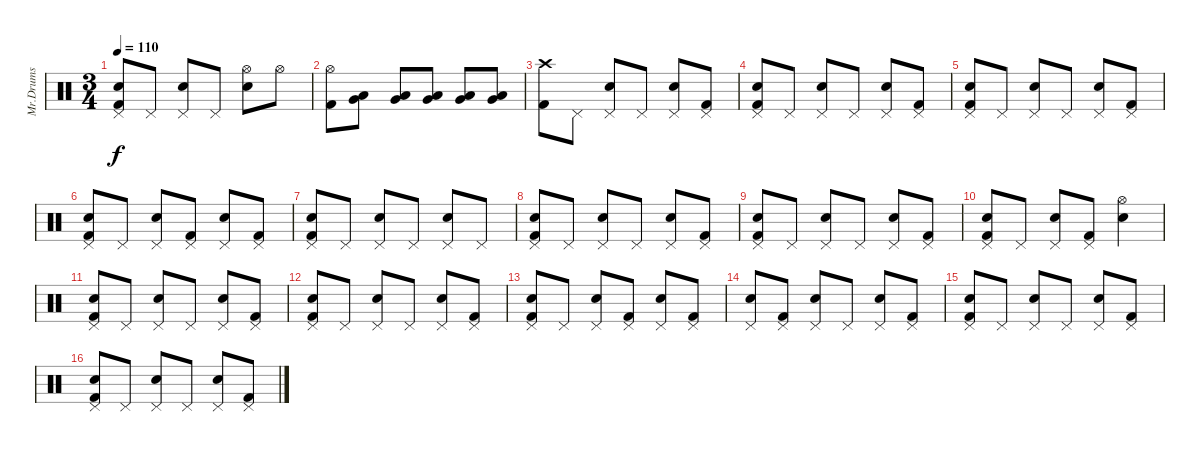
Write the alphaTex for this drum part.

\track ("Mr.Drums" "Mr.Drums") {instrument percussion}
\staff {score}
\articulation defaults
\ts (3 4)
\tempo 110
\clef neutral
\ks c
("Pedal Hi-Hat (hit)" "Electric Snare (hit)" "Kick (hit) 2").8{dy f} "Pedal Hi-Hat (hit)".8 ("Pedal Hi-Hat (hit)" "Electric Snare (hit)").8 "Pedal Hi-Hat (hit)".8 ("Hi-Hat (open)" "Electric Snare (hit)").8 "Hi-Hat (open)".8 |
("Hi-Hat (open)" "Kick (hit) 2").8 ("Low Tom (hit)" "Very Low Tom (hit)").8 ("Low Tom (hit)" "Very Low Tom (hit)").8 ("Low Tom (hit)" "Very Low Tom (hit)").8 ("Low Tom (hit)" "Very Low Tom (hit)").8 ("Very Low Tom (hit)" "Low Floor Tom (hit)").8 |
("Crash high (hit)" "Kick (hit) 2").8 "Pedal Hi-Hat (hit)".8 ("Pedal Hi-Hat (hit)" "Electric Snare (hit)").8 "Pedal Hi-Hat (hit)".8 ("Pedal Hi-Hat (hit)" "Electric Snare (hit)").8 ("Pedal Hi-Hat (hit)" "Kick (hit) 2").8 |
("Pedal Hi-Hat (hit)" "Electric Snare (hit)" "Kick (hit) 2").8 "Pedal Hi-Hat (hit)".8 ("Pedal Hi-Hat (hit)" "Electric Snare (hit)").8 "Pedal Hi-Hat (hit)".8 ("Pedal Hi-Hat (hit)" "Electric Snare (hit)").8 ("Pedal Hi-Hat (hit)" "Kick (hit) 2").8 |
("Pedal Hi-Hat (hit)" "Electric Snare (hit)" "Kick (hit) 2").8 "Pedal Hi-Hat (hit)".8 ("Pedal Hi-Hat (hit)" "Electric Snare (hit)").8 "Pedal Hi-Hat (hit)".8 ("Pedal Hi-Hat (hit)" "Electric Snare (hit)").8 ("Pedal Hi-Hat (hit)" "Kick (hit) 2").8 |
("Pedal Hi-Hat (hit)" "Electric Snare (hit)" "Kick (hit) 2").8 "Pedal Hi-Hat (hit)".8 ("Pedal Hi-Hat (hit)" "Electric Snare (hit)").8 ("Pedal Hi-Hat (hit)" "Kick (hit) 2").8 ("Pedal Hi-Hat (hit)" "Electric Snare (hit)").8 ("Pedal Hi-Hat (hit)" "Kick (hit) 2").8 |
("Pedal Hi-Hat (hit)" "Electric Snare (hit)" "Kick (hit) 2").8 "Pedal Hi-Hat (hit)".8 ("Pedal Hi-Hat (hit)" "Electric Snare (hit)").8 "Pedal Hi-Hat (hit)".8 ("Pedal Hi-Hat (hit)" "Electric Snare (hit)").8 "Pedal Hi-Hat (hit)".8 |
("Pedal Hi-Hat (hit)" "Electric Snare (hit)" "Kick (hit) 2").8 "Pedal Hi-Hat (hit)".8 ("Pedal Hi-Hat (hit)" "Electric Snare (hit)").8 "Pedal Hi-Hat (hit)".8 ("Pedal Hi-Hat (hit)" "Electric Snare (hit)").8 ("Pedal Hi-Hat (hit)" "Kick (hit) 2").8 |
("Pedal Hi-Hat (hit)" "Electric Snare (hit)" "Kick (hit) 2").8 "Pedal Hi-Hat (hit)".8 ("Pedal Hi-Hat (hit)" "Electric Snare (hit)").8 "Pedal Hi-Hat (hit)".8 ("Pedal Hi-Hat (hit)" "Electric Snare (hit)").8 ("Pedal Hi-Hat (hit)" "Kick (hit) 2").8 |
("Pedal Hi-Hat (hit)" "Electric Snare (hit)" "Kick (hit) 2").8 "Pedal Hi-Hat (hit)".8 ("Pedal Hi-Hat (hit)" "Electric Snare (hit)").8 ("Pedal Hi-Hat (hit)" "Kick (hit) 2").8 ("Hi-Hat (open)" "Electric Snare (hit)").4 |
("Pedal Hi-Hat (hit)" "Electric Snare (hit)" "Kick (hit) 2").8 "Pedal Hi-Hat (hit)".8 ("Pedal Hi-Hat (hit)" "Electric Snare (hit)").8 "Pedal Hi-Hat (hit)".8 ("Pedal Hi-Hat (hit)" "Electric Snare (hit)").8 ("Pedal Hi-Hat (hit)" "Kick (hit) 2").8 |
("Pedal Hi-Hat (hit)" "Electric Snare (hit)" "Kick (hit) 2").8 "Pedal Hi-Hat (hit)".8 ("Pedal Hi-Hat (hit)" "Electric Snare (hit)").8 "Pedal Hi-Hat (hit)".8 ("Pedal Hi-Hat (hit)" "Electric Snare (hit)").8 ("Pedal Hi-Hat (hit)" "Kick (hit) 2").8 |
("Pedal Hi-Hat (hit)" "Electric Snare (hit)" "Kick (hit) 2").8 "Pedal Hi-Hat (hit)".8 ("Pedal Hi-Hat (hit)" "Electric Snare (hit)").8 ("Pedal Hi-Hat (hit)" "Kick (hit) 2").8 ("Pedal Hi-Hat (hit)" "Electric Snare (hit)").8 ("Pedal Hi-Hat (hit)" "Kick (hit) 2").8 |
("Pedal Hi-Hat (hit)" "Electric Snare (hit)").8 ("Pedal Hi-Hat (hit)" "Kick (hit) 2").8 ("Pedal Hi-Hat (hit)" "Electric Snare (hit)").8 "Pedal Hi-Hat (hit)".8 ("Pedal Hi-Hat (hit)" "Electric Snare (hit)").8 ("Pedal Hi-Hat (hit)" "Kick (hit) 2").8 |
("Pedal Hi-Hat (hit)" "Electric Snare (hit)" "Kick (hit) 2").8 "Pedal Hi-Hat (hit)".8 ("Pedal Hi-Hat (hit)" "Electric Snare (hit)").8 "Pedal Hi-Hat (hit)".8 ("Pedal Hi-Hat (hit)" "Electric Snare (hit)").8 ("Pedal Hi-Hat (hit)" "Kick (hit) 2").8 |
("Pedal Hi-Hat (hit)" "Electric Snare (hit)" "Kick (hit) 2").8 "Pedal Hi-Hat (hit)".8 ("Pedal Hi-Hat (hit)" "Electric Snare (hit)").8 "Pedal Hi-Hat (hit)".8 ("Pedal Hi-Hat (hit)" "Electric Snare (hit)").8 ("Pedal Hi-Hat (hit)" "Kick (hit) 2").8
